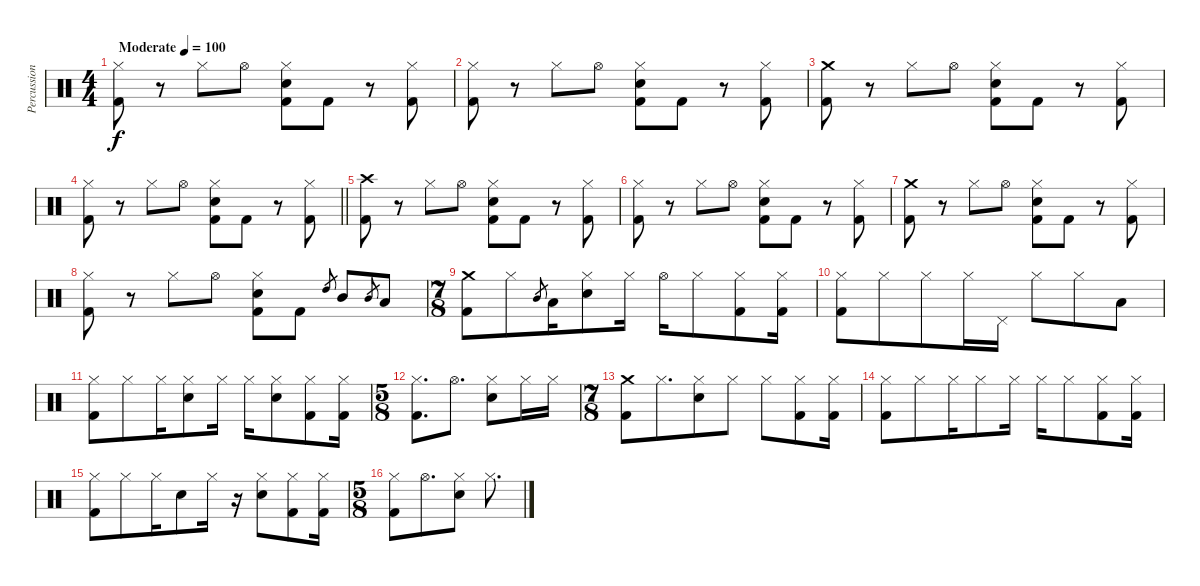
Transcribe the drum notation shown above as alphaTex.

\track ("Percussion" "Percussion") {instrument percussion}
\staff {score}
\articulation defaults
\ts (4 4)
\tempo (100 "Moderate")
\clef neutral
\ks c
("Hi-Hat (closed)" "Kick (hit) 2").8{dy f} r.8 "Hi-Hat (closed)".8 "Hi-Hat (open)".8 ("Hi-Hat (closed)" "Electric Snare (hit)" "Kick (hit) 2").8 "Kick (hit) 2".8 r.8 ("Hi-Hat (closed)" "Kick (hit) 2").8 |
("Hi-Hat (closed)" "Kick (hit) 2").8 r.8 "Hi-Hat (closed)".8 "Hi-Hat (open)".8 ("Hi-Hat (closed)" "Electric Snare (hit)" "Kick (hit) 2").8 "Kick (hit) 2".8 r.8 ("Hi-Hat (closed)" "Kick (hit) 2").8 |
("Crash medium (hit)" "Kick (hit) 2").8 r.8 "Hi-Hat (closed)".8 "Hi-Hat (open)".8 ("Hi-Hat (closed)" "Electric Snare (hit)" "Kick (hit) 2").8 "Kick (hit) 2".8 r.8 ("Hi-Hat (closed)" "Kick (hit) 2").8 |
\barLineRight lightlight
("Hi-Hat (closed)" "Kick (hit) 2").8 r.8 "Hi-Hat (closed)".8 "Hi-Hat (open)".8 ("Hi-Hat (closed)" "Electric Snare (hit)" "Kick (hit) 2").8 "Kick (hit) 2".8 r.8 ("Hi-Hat (closed)" "Kick (hit) 2").8 |
("Crash high (hit)" "Kick (hit) 2").8 r.8 "Hi-Hat (closed)".8 "Hi-Hat (open)".8 ("Hi-Hat (closed)" "Electric Snare (hit)" "Kick (hit) 2").8 "Kick (hit) 2".8 r.8 ("Hi-Hat (closed)" "Kick (hit) 2").8 |
("Hi-Hat (closed)" "Kick (hit) 2").8 r.8 "Hi-Hat (closed)".8 "Hi-Hat (open)".8 ("Hi-Hat (closed)" "Electric Snare (hit)" "Kick (hit) 2").8 "Kick (hit) 2".8 r.8 ("Hi-Hat (closed)" "Kick (hit) 2").8 |
("Crash medium (hit)" "Kick (hit) 2").8 r.8 "Hi-Hat (closed)".8 "Hi-Hat (open)".8 ("Hi-Hat (closed)" "Electric Snare (hit)" "Kick (hit) 2").8 "Kick (hit) 2".8 r.8 ("Hi-Hat (closed)" "Kick (hit) 2").8 |
("Hi-Hat (closed)" "Kick (hit) 2").8 r.8 "Hi-Hat (closed)".8 "Hi-Hat (open)".8 ("Hi-Hat (closed)" "Electric Snare (hit)" "Kick (hit) 2").8 "Kick (hit) 2".8 "High Tom (hit)".8{gr} "Mid Tom (hit)".8 "Mid Tom (hit)".8{gr} "Low Tom (hit)".8 |
\ts (7 8)
("Crash medium (hit)" "Kick (hit) 2").8 "Hi-Hat (closed)".8 "Mid Tom (hit)".8{gr} "Low Tom (hit)".16 ("Hi-Hat (closed)" "Electric Snare (hit)").8 "Hi-Hat (closed)".16 "Hi-Hat (open)".16 "Hi-Hat (closed)".8 ("Hi-Hat (closed)" "Kick (hit) 2").8 ("Hi-Hat (closed)" "Kick (hit) 2").16 |
("Hi-Hat (closed)" "Kick (hit) 2").8 "Hi-Hat (closed)".8 "Hi-Hat (closed)".8 "Hi-Hat (closed)".16 "Pedal Hi-Hat (hit)".16 "Hi-Hat (closed)".8 "Hi-Hat (closed)".8 "Low Tom (hit)".8 |
("Hi-Hat (closed)" "Kick (hit) 2").8 "Hi-Hat (closed)".8 "Hi-Hat (closed)".16 ("Hi-Hat (closed)" "Electric Snare (hit)").8 "Hi-Hat (closed)".16 "Hi-Hat (closed)".16 ("Hi-Hat (closed)" "Electric Snare (hit)").8 ("Hi-Hat (closed)" "Kick (hit) 2").8 ("Hi-Hat (closed)" "Kick (hit) 2").16 |
\ts (5 8)
("Hi-Hat (closed)" "Kick (hit) 2").8{d} "Hi-Hat (open)".8{d} ("Hi-Hat (closed)" "Electric Snare (hit)").8 "Hi-Hat (closed)".16 "Hi-Hat (closed)".16 |
\ts (7 8)
("Crash medium (hit)" "Kick (hit) 2").8 "Hi-Hat (closed)".8{d} ("Hi-Hat (closed)" "Electric Snare (hit)").8 "Hi-Hat (closed)".8 "Hi-Hat (closed)".8 ("Hi-Hat (closed)" "Kick (hit) 2").8 ("Hi-Hat (closed)" "Kick (hit) 2").16 |
("Hi-Hat (closed)" "Kick (hit) 2").8 "Hi-Hat (closed)".8 "Hi-Hat (closed)".16 "Hi-Hat (closed)".8 "Hi-Hat (closed)".16 "Hi-Hat (closed)".16 "Hi-Hat (closed)".8 ("Hi-Hat (closed)" "Kick (hit) 2").8 ("Hi-Hat (closed)" "Kick (hit) 2").16 |
("Hi-Hat (closed)" "Kick (hit) 2").8 "Hi-Hat (closed)".8 "Hi-Hat (closed)".16 "Electric Snare (hit)".8 "Hi-Hat (closed)".16 r.16 ("Hi-Hat (closed)" "Electric Snare (hit)").8 ("Hi-Hat (closed)" "Kick (hit) 2").8 ("Hi-Hat (closed)" "Kick (hit) 2").16 |
\ts (5 8)
("Hi-Hat (closed)" "Kick (hit) 2").8 "Hi-Hat (open)".8{d} ("Hi-Hat (closed)" "Electric Snare (hit)").8 "Hi-Hat (closed)".8{d}
